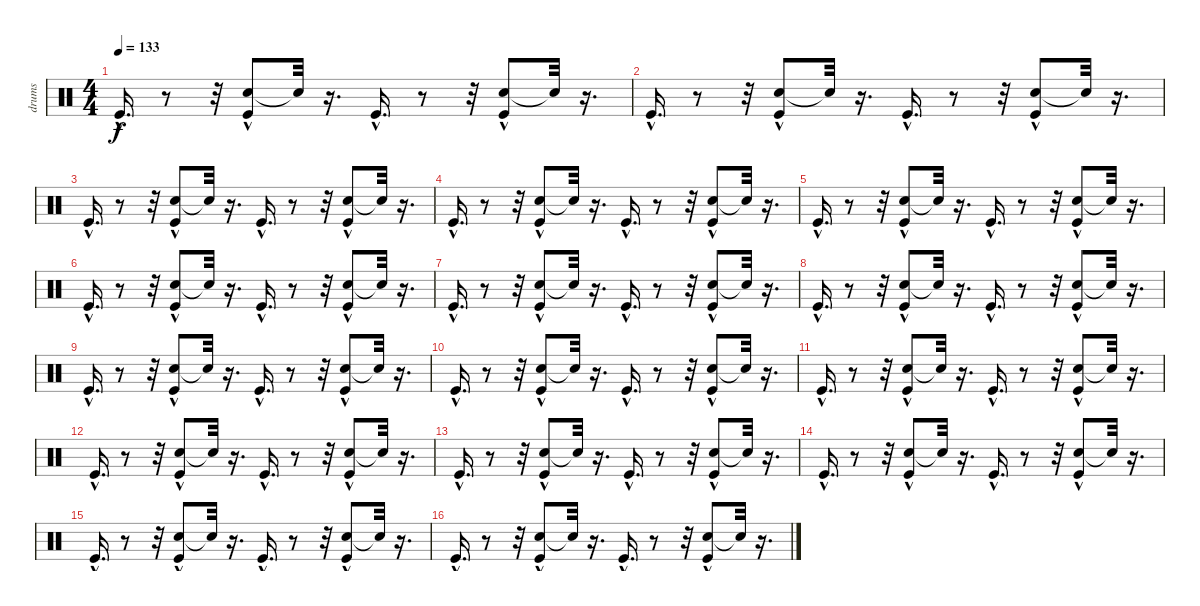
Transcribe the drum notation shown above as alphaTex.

\track ("drums" "drums") {instrument percussion}
\staff {score}
\articulation defaults
\ts (4 4)
\tempo 133
\clef neutral
\ks c "Kick (hit)"{hac}.16{d dy f}
r.8 r.32 ("Hand Clap (hit)" "Kick (hit)"{hac}).8 "Snare (hit)"{t}.32 r.16{d} "Kick (hit)"{hac}.16{d} r.8 r.32 ("Hand Clap (hit)" "Kick (hit)"{hac}).8 "Snare (hit)"{t}.32 r.16{d} |
"Kick (hit)"{hac}.16{d} r.8 r.32 ("Hand Clap (hit)" "Kick (hit)"{hac}).8 "Snare (hit)"{t}.32 r.16{d} "Kick (hit)"{hac}.16{d} r.8 r.32 ("Hand Clap (hit)" "Kick (hit)"{hac}).8 "Snare (hit)"{t}.32 r.16{d} |
"Kick (hit)"{hac}.16{d} r.8 r.32 ("Hand Clap (hit)" "Kick (hit)"{hac}).8 "Snare (hit)"{t}.32 r.16{d} "Kick (hit)"{hac}.16{d} r.8 r.32 ("Hand Clap (hit)" "Kick (hit)"{hac}).8 "Snare (hit)"{t}.32 r.16{d} |
"Kick (hit)"{hac}.16{d} r.8 r.32 ("Hand Clap (hit)" "Kick (hit)"{hac}).8 "Snare (hit)"{t}.32 r.16{d} "Kick (hit)"{hac}.16{d} r.8 r.32 ("Hand Clap (hit)" "Kick (hit)"{hac}).8 "Snare (hit)"{t}.32 r.16{d} |
"Kick (hit)"{hac}.16{d} r.8 r.32 ("Hand Clap (hit)" "Kick (hit)"{hac}).8 "Snare (hit)"{t}.32 r.16{d} "Kick (hit)"{hac}.16{d} r.8 r.32 ("Hand Clap (hit)" "Kick (hit)"{hac}).8 "Snare (hit)"{t}.32 r.16{d} |
"Kick (hit)"{hac}.16{d} r.8 r.32 ("Hand Clap (hit)" "Kick (hit)"{hac}).8 "Snare (hit)"{t}.32 r.16{d} "Kick (hit)"{hac}.16{d} r.8 r.32 ("Hand Clap (hit)" "Kick (hit)"{hac}).8 "Snare (hit)"{t}.32 r.16{d} |
"Kick (hit)"{hac}.16{d} r.8 r.32 ("Hand Clap (hit)" "Kick (hit)"{hac}).8 "Snare (hit)"{t}.32 r.16{d} "Kick (hit)"{hac}.16{d} r.8 r.32 ("Hand Clap (hit)" "Kick (hit)"{hac}).8 "Snare (hit)"{t}.32 r.16{d} |
"Kick (hit)"{hac}.16{d} r.8 r.32 ("Hand Clap (hit)" "Kick (hit)"{hac}).8 "Snare (hit)"{t}.32 r.16{d} "Kick (hit)"{hac}.16{d} r.8 r.32 ("Hand Clap (hit)" "Kick (hit)"{hac}).8 "Snare (hit)"{t}.32 r.16{d} |
"Kick (hit)"{hac}.16{d} r.8 r.32 ("Hand Clap (hit)" "Kick (hit)"{hac}).8 "Snare (hit)"{t}.32 r.16{d} "Kick (hit)"{hac}.16{d} r.8 r.32 ("Hand Clap (hit)" "Kick (hit)"{hac}).8 "Snare (hit)"{t}.32 r.16{d} |
"Kick (hit)"{hac}.16{d} r.8 r.32 ("Hand Clap (hit)" "Kick (hit)"{hac}).8 "Snare (hit)"{t}.32 r.16{d} "Kick (hit)"{hac}.16{d} r.8 r.32 ("Hand Clap (hit)" "Kick (hit)"{hac}).8 "Snare (hit)"{t}.32 r.16{d} |
"Kick (hit)"{hac}.16{d} r.8 r.32 ("Hand Clap (hit)" "Kick (hit)"{hac}).8 "Snare (hit)"{t}.32 r.16{d} "Kick (hit)"{hac}.16{d} r.8 r.32 ("Hand Clap (hit)" "Kick (hit)"{hac}).8 "Snare (hit)"{t}.32 r.16{d} |
"Kick (hit)"{hac}.16{d} r.8 r.32 ("Hand Clap (hit)" "Kick (hit)"{hac}).8 "Snare (hit)"{t}.32 r.16{d} "Kick (hit)"{hac}.16{d} r.8 r.32 ("Hand Clap (hit)" "Kick (hit)"{hac}).8 "Snare (hit)"{t}.32 r.16{d} |
"Kick (hit)"{hac}.16{d} r.8 r.32 ("Hand Clap (hit)" "Kick (hit)"{hac}).8 "Snare (hit)"{t}.32 r.16{d} "Kick (hit)"{hac}.16{d} r.8 r.32 ("Hand Clap (hit)" "Kick (hit)"{hac}).8 "Snare (hit)"{t}.32 r.16{d} |
"Kick (hit)"{hac}.16{d} r.8 r.32 ("Hand Clap (hit)" "Kick (hit)"{hac}).8 "Snare (hit)"{t}.32 r.16{d} "Kick (hit)"{hac}.16{d} r.8 r.32 ("Hand Clap (hit)" "Kick (hit)"{hac}).8 "Snare (hit)"{t}.32 r.16{d} |
"Kick (hit)"{hac}.16{d} r.8 r.32 ("Hand Clap (hit)" "Kick (hit)"{hac}).8 "Snare (hit)"{t}.32 r.16{d} "Kick (hit)"{hac}.16{d} r.8 r.32 ("Hand Clap (hit)" "Kick (hit)"{hac}).8 "Snare (hit)"{t}.32 r.16{d} |
"Kick (hit)"{hac}.16{d} r.8 r.32 ("Hand Clap (hit)" "Kick (hit)"{hac}).8 "Snare (hit)"{t}.32 r.16{d} "Kick (hit)"{hac}.16{d} r.8 r.32 ("Hand Clap (hit)" "Kick (hit)"{hac}).8 "Snare (hit)"{t}.32 r.16{d}
